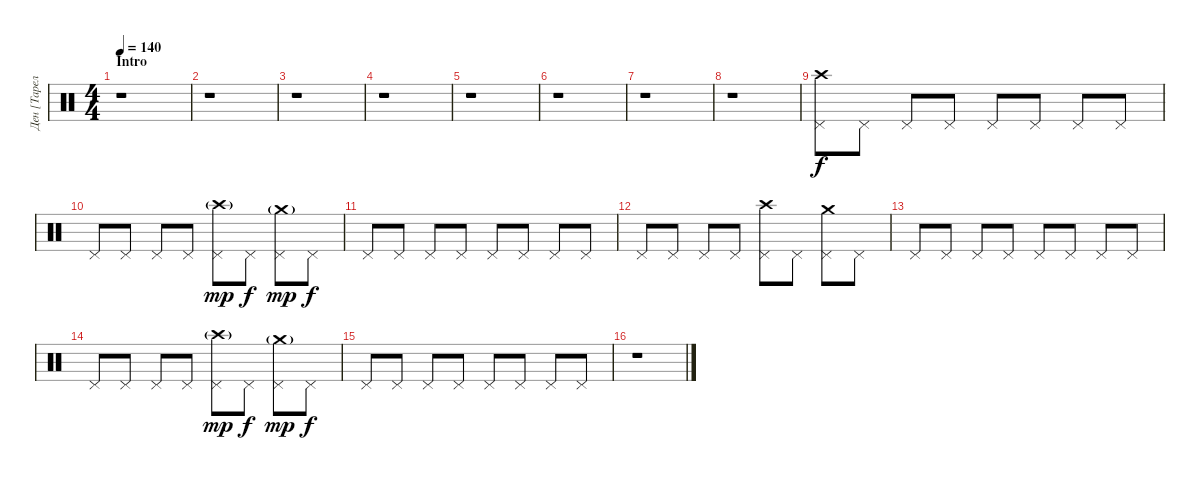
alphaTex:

\track ("Ден [Тарелки]" "Ден [Тарел") {instrument percussion}
\staff {score}
\articulation defaults
\ts (4 4)
\section ("" "Intro")
\tempo 140
\clef neutral
\ks c
r.1{dy f} |
r.1 |
r.1 |
r.1 |
r.1 |
r.1 |
r.1 |
r.1 |
("Crash high (hit)" "Pedal Hi-Hat (hit)").8 "Pedal Hi-Hat (hit)".8 "Pedal Hi-Hat (hit)".8 "Pedal Hi-Hat (hit)".8 "Pedal Hi-Hat (hit)".8 "Pedal Hi-Hat (hit)".8 "Pedal Hi-Hat (hit)".8 "Pedal Hi-Hat (hit)".8 |
"Pedal Hi-Hat (hit)".8 "Pedal Hi-Hat (hit)".8 "Pedal Hi-Hat (hit)".8 "Pedal Hi-Hat (hit)".8 ("Crash high (hit)"{g} "Pedal Hi-Hat (hit)"{tr (44 32)}).8{dy mp} "Pedal Hi-Hat (hit)".8{dy f} ("Crash medium (hit)"{g} "Pedal Hi-Hat (hit)"{tr (44 32)}).8{dy mp} "Pedal Hi-Hat (hit)".8{dy f} |
"Pedal Hi-Hat (hit)".8 "Pedal Hi-Hat (hit)".8 "Pedal Hi-Hat (hit)".8 "Pedal Hi-Hat (hit)".8 "Pedal Hi-Hat (hit)".8 "Pedal Hi-Hat (hit)".8 "Pedal Hi-Hat (hit)".8 "Pedal Hi-Hat (hit)".8 |
"Pedal Hi-Hat (hit)".8 "Pedal Hi-Hat (hit)".8 "Pedal Hi-Hat (hit)".8 "Pedal Hi-Hat (hit)".8 ("Crash high (hit)" "Pedal Hi-Hat (hit)").8 "Pedal Hi-Hat (hit)".8 ("Crash medium (hit)" "Pedal Hi-Hat (hit)").8 "Pedal Hi-Hat (hit)".8 |
"Pedal Hi-Hat (hit)".8 "Pedal Hi-Hat (hit)".8 "Pedal Hi-Hat (hit)".8 "Pedal Hi-Hat (hit)".8 "Pedal Hi-Hat (hit)".8 "Pedal Hi-Hat (hit)".8 "Pedal Hi-Hat (hit)".8 "Pedal Hi-Hat (hit)".8 |
"Pedal Hi-Hat (hit)".8 "Pedal Hi-Hat (hit)".8 "Pedal Hi-Hat (hit)".8 "Pedal Hi-Hat (hit)".8 ("Crash high (hit)"{g} "Pedal Hi-Hat (hit)"{tr (44 32)}).8{dy mp} "Pedal Hi-Hat (hit)".8{dy f} ("Crash medium (hit)"{g} "Pedal Hi-Hat (hit)"{tr (44 32)}).8{dy mp} "Pedal Hi-Hat (hit)".8{dy f} |
"Pedal Hi-Hat (hit)".8 "Pedal Hi-Hat (hit)".8 "Pedal Hi-Hat (hit)".8 "Pedal Hi-Hat (hit)".8 "Pedal Hi-Hat (hit)".8 "Pedal Hi-Hat (hit)".8 "Pedal Hi-Hat (hit)".8 "Pedal Hi-Hat (hit)".8 |
r.1
